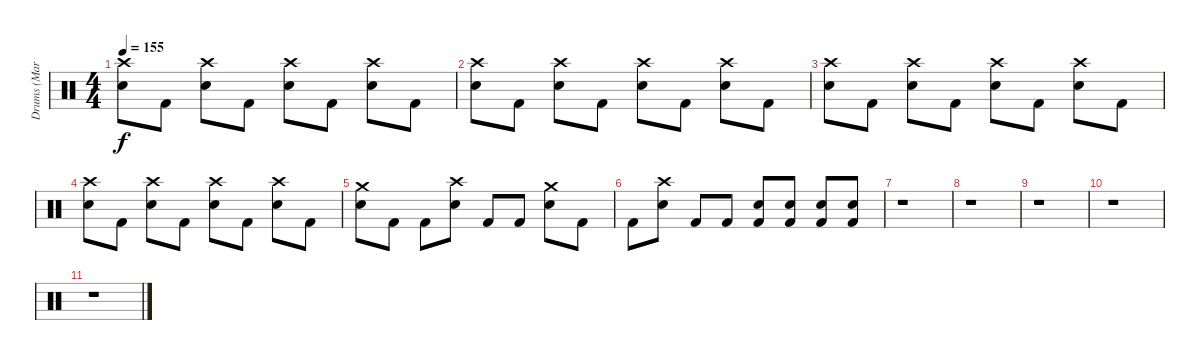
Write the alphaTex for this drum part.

\track ("Drums (Mark)" "Drums (Mar") {instrument percussion}
\staff {score}
\articulation defaults
\ts (4 4)
\tempo 155
\clef neutral
\ks c
("Crash high (hit)" "Snare (hit) 2").8{dy f} "Kick (hit) 2".8 ("Crash high (hit)" "Snare (hit) 2").8 "Kick (hit) 2".8 ("Crash high (hit)" "Snare (hit) 2").8 "Kick (hit) 2".8 ("Crash high (hit)" "Snare (hit) 2").8 "Kick (hit) 2".8 |
("Crash high (hit)" "Snare (hit) 2").8 "Kick (hit) 2".8 ("Crash high (hit)" "Snare (hit) 2").8 "Kick (hit) 2".8 ("Crash high (hit)" "Snare (hit) 2").8 "Kick (hit) 2".8 ("Crash high (hit)" "Snare (hit) 2").8 "Kick (hit) 2".8 |
("Crash high (hit)" "Snare (hit) 2").8 "Kick (hit) 2".8 ("Crash high (hit)" "Snare (hit) 2").8 "Kick (hit) 2".8 ("Crash high (hit)" "Snare (hit) 2").8 "Kick (hit) 2".8 ("Crash high (hit)" "Snare (hit) 2").8 "Kick (hit) 2".8 |
("Crash high (hit)" "Snare (hit) 2").8 "Kick (hit) 2".8 ("Crash high (hit)" "Snare (hit) 2").8 "Kick (hit) 2".8 ("Crash high (hit)" "Snare (hit) 2").8 "Kick (hit) 2".8 ("Crash high (hit)" "Snare (hit) 2").8 "Kick (hit) 2".8 |
("Crash medium (hit)" "Snare (hit) 2").8 "Kick (hit) 2".8 "Kick (hit) 2".8 ("Crash high (hit)" "Snare (hit) 2").8 "Kick (hit) 2".8 "Kick (hit) 2".8 ("Crash medium (hit)" "Snare (hit) 2").8 "Kick (hit) 2".8 |
"Kick (hit) 2".8 ("Crash high (hit)" "Snare (hit) 2").8 "Kick (hit) 2".8 "Kick (hit) 2".8 ("Snare (hit) 2" "Kick (hit) 2").8 ("Snare (hit) 2" "Kick (hit) 2").8 ("Snare (hit) 2" "Kick (hit) 2").8 ("Snare (hit) 2" "Kick (hit) 2").8 |
r.1 |
r.1 |
r.1 |
r.1 |
r.1
